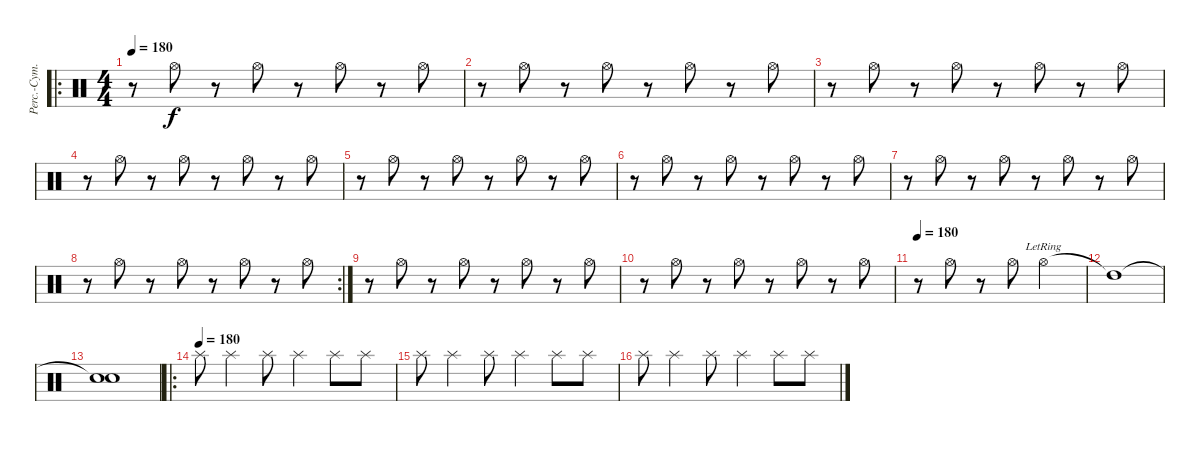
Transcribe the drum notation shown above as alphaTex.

\track ("Perc.-Cym. 2" "Perc.-Cym.") {instrument percussion}
\staff {score}
\articulation defaults
\ro
\ts (4 4)
\tempo 180
\clef neutral
\ks c
r.8{dy f} "Hi-Hat (open)".8 r.8 "Hi-Hat (open)".8 r.8 "Hi-Hat (open)".8 r.8 "Hi-Hat (open)".8 |
r.8 "Hi-Hat (open)".8 r.8 "Hi-Hat (open)".8 r.8 "Hi-Hat (open)".8 r.8 "Hi-Hat (open)".8 |
r.8 "Hi-Hat (open)".8 r.8 "Hi-Hat (open)".8 r.8 "Hi-Hat (open)".8 r.8 "Hi-Hat (open)".8 |
r.8 "Hi-Hat (open)".8 r.8 "Hi-Hat (open)".8 r.8 "Hi-Hat (open)".8 r.8 "Hi-Hat (open)".8 |
r.8 "Hi-Hat (open)".8 r.8 "Hi-Hat (open)".8 r.8 "Hi-Hat (open)".8 r.8 "Hi-Hat (open)".8 |
r.8 "Hi-Hat (open)".8 r.8 "Hi-Hat (open)".8 r.8 "Hi-Hat (open)".8 r.8 "Hi-Hat (open)".8 |
r.8 "Hi-Hat (open)".8 r.8 "Hi-Hat (open)".8 r.8 "Hi-Hat (open)".8 r.8 "Hi-Hat (open)".8 |
\rc 2
r.8 "Hi-Hat (open)".8 r.8 "Hi-Hat (open)".8 r.8 "Hi-Hat (open)".8 r.8 "Hi-Hat (open)".8 |
r.8 "Hi-Hat (open)".8 r.8 "Hi-Hat (open)".8 r.8 "Hi-Hat (open)".8 r.8 "Hi-Hat (open)".8 |
r.8 "Hi-Hat (open)".8 r.8 "Hi-Hat (open)".8 r.8 "Hi-Hat (open)".8 r.8 "Hi-Hat (open)".8 |
\tempo 180
r.8 "Hi-Hat (open)".8 r.8 "Hi-Hat (open)".8 "Hi-Hat (open)"{lr}.2 |
"High Tom (hit)"{t}.1 |
("Snare (hit)"{t} "Snare (hit)").1 |
\ro
\tempo (180)
"Splash (hit)".8 "Splash (hit)".4 "Splash (hit)".8 "Splash (hit)".4 "Splash (hit)".8 "Splash (hit)".8 |
"Splash (hit)".8 "Splash (hit)".4 "Splash (hit)".8 "Splash (hit)".4 "Splash (hit)".8 "Splash (hit)".8 |
"Splash (hit)".8 "Splash (hit)".4 "Splash (hit)".8 "Splash (hit)".4 "Splash (hit)".8 "Splash (hit)".8
